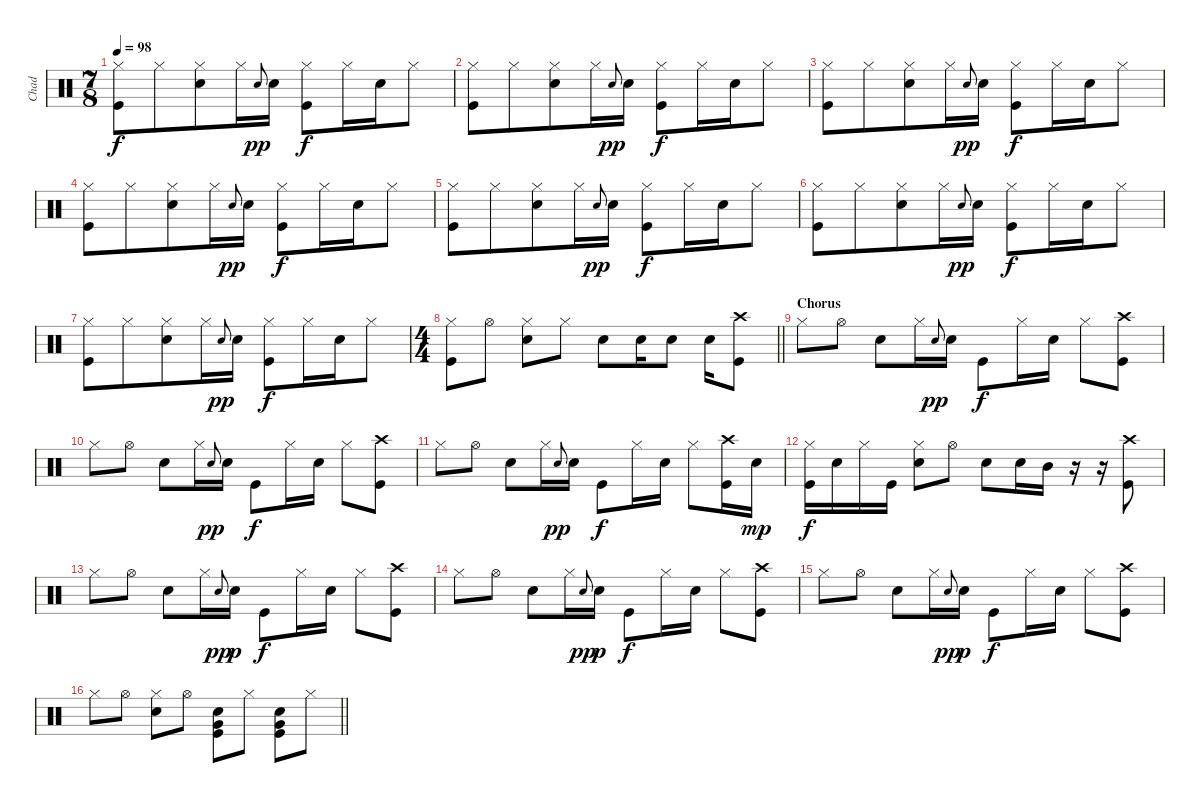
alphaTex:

\track ("Chad" "Chad") {instrument percussion}
\staff {score}
\articulation defaults
\ts (7 8)
\tempo 98
\clef neutral
\ks c
("Hi-Hat (closed)" "Kick (hit)").8{dy f} "Hi-Hat (closed)".8 ("Hi-Hat (closed)" "Snare (hit) 2").8 "Hi-Hat (closed)".16 "Snare (hit) 2".8{gr onbeat dy pp} "Snare (hit) 2".16 ("Hi-Hat (closed)" "Kick (hit)").8{dy f} "Hi-Hat (closed)".16 "Snare (hit) 2".16 "Hi-Hat (closed)".8 |
("Hi-Hat (closed)" "Kick (hit)").8 "Hi-Hat (closed)".8 ("Hi-Hat (closed)" "Snare (hit) 2").8 "Hi-Hat (closed)".16 "Snare (hit) 2".8{gr onbeat dy pp} "Snare (hit) 2".16 ("Hi-Hat (closed)" "Kick (hit)").8{dy f} "Hi-Hat (closed)".16 "Snare (hit) 2".16 "Hi-Hat (closed)".8 |
("Hi-Hat (closed)" "Kick (hit)").8 "Hi-Hat (closed)".8 ("Hi-Hat (closed)" "Snare (hit) 2").8 "Hi-Hat (closed)".16 "Snare (hit) 2".8{gr onbeat dy pp} "Snare (hit) 2".16 ("Hi-Hat (closed)" "Kick (hit)").8{dy f} "Hi-Hat (closed)".16 "Snare (hit) 2".16 "Hi-Hat (closed)".8 |
("Hi-Hat (closed)" "Kick (hit)").8 "Hi-Hat (closed)".8 ("Hi-Hat (closed)" "Snare (hit) 2").8 "Hi-Hat (closed)".16 "Snare (hit) 2".8{gr onbeat dy pp} "Snare (hit) 2".16 ("Hi-Hat (closed)" "Kick (hit)").8{dy f} "Hi-Hat (closed)".16 "Snare (hit) 2".16 "Hi-Hat (closed)".8 |
("Hi-Hat (closed)" "Kick (hit)").8 "Hi-Hat (closed)".8 ("Hi-Hat (closed)" "Snare (hit) 2").8 "Hi-Hat (closed)".16 "Snare (hit) 2".8{gr onbeat dy pp} "Snare (hit) 2".16 ("Hi-Hat (closed)" "Kick (hit)").8{dy f} "Hi-Hat (closed)".16 "Snare (hit) 2".16 "Hi-Hat (closed)".8 |
("Hi-Hat (closed)" "Kick (hit)").8 "Hi-Hat (closed)".8 ("Hi-Hat (closed)" "Snare (hit) 2").8 "Hi-Hat (closed)".16 "Snare (hit) 2".8{gr onbeat dy pp} "Snare (hit) 2".16 ("Hi-Hat (closed)" "Kick (hit)").8{dy f} "Hi-Hat (closed)".16 "Snare (hit) 2".16 "Hi-Hat (closed)".8 |
("Hi-Hat (closed)" "Kick (hit)").8 "Hi-Hat (closed)".8 ("Hi-Hat (closed)" "Snare (hit) 2").8 "Hi-Hat (closed)".16 "Snare (hit) 2".8{gr onbeat dy pp} "Snare (hit) 2".16 ("Hi-Hat (closed)" "Kick (hit)").8{dy f} "Hi-Hat (closed)".16 "Snare (hit) 2".16 "Hi-Hat (closed)".8 |
\ts (4 4)
\barLineRight lightlight
("Hi-Hat (closed)" "Kick (hit)").8 "Hi-Hat (open)".8 ("Hi-Hat (closed)" "Snare (hit) 2").8 "Hi-Hat (closed)".8 "Snare (hit) 2".8 "Snare (hit) 2".16 "Snare (hit) 2".8 "Snare (hit) 2".16 ("Crash high (hit)" "Kick (hit)").8 |
\section ("" "Chorus")
"Hi-Hat (closed)".8 "Hi-Hat (open)".8 "Snare (hit) 2".8 "Hi-Hat (closed)".16 "Snare (hit) 2".8{gr onbeat dy pp} "Snare (hit) 2".16 "Kick (hit)".8{dy f} "Hi-Hat (closed)".16 "Snare (hit) 2".16 "Hi-Hat (closed)".8 ("Crash high (hit)" "Kick (hit)").8 |
"Hi-Hat (closed)".8 "Hi-Hat (open)".8 "Snare (hit) 2".8 "Hi-Hat (closed)".16 "Snare (hit) 2".8{gr onbeat dy pp} "Snare (hit) 2".16 "Kick (hit)".8{dy f} "Hi-Hat (closed)".16 "Snare (hit) 2".16 "Hi-Hat (closed)".8 ("Crash high (hit)" "Kick (hit)").8 |
"Hi-Hat (closed)".8 "Hi-Hat (open)".8 "Snare (hit) 2".8 "Hi-Hat (closed)".16 "Snare (hit) 2".8{gr onbeat dy pp} "Snare (hit) 2".16 "Kick (hit)".8{dy f} "Hi-Hat (closed)".16 "Snare (hit) 2".16 "Hi-Hat (closed)".8 ("Crash high (hit)" "Kick (hit)").16 "Snare (hit) 2".16{dy mp} |
("Hi-Hat (closed)" "Kick (hit)").16{dy f} "Snare (hit) 2".16 "Hi-Hat (closed)".16 "Kick (hit)".16 ("Snare (hit) 2" "Hi-Hat (closed)").8 "Hi-Hat (open)".8 "Snare (hit) 2".8 "Snare (hit) 2".16 "Mid Tom (hit)".16 r.16 r.16 ("Crash high (hit)" "Kick (hit)").8 |
"Hi-Hat (closed)".8 "Hi-Hat (open)".8 "Snare (hit) 2".8 "Hi-Hat (closed)".16 "Snare (hit) 2".8{gr onbeat dy pp} "Snare (hit) 2".16{dy p} "Kick (hit)".8{dy f} "Hi-Hat (closed)".16 "Snare (hit) 2".16 "Hi-Hat (closed)".8 ("Crash high (hit)" "Kick (hit)").8 |
"Hi-Hat (closed)".8 "Hi-Hat (open)".8 "Snare (hit) 2".8 "Hi-Hat (closed)".16 "Snare (hit) 2".8{gr onbeat dy pp} "Snare (hit) 2".16{dy p} "Kick (hit)".8{dy f} "Hi-Hat (closed)".16 "Snare (hit) 2".16 "Hi-Hat (closed)".8 ("Crash high (hit)" "Kick (hit)").8 |
"Hi-Hat (closed)".8 "Hi-Hat (open)".8 "Snare (hit) 2".8 "Hi-Hat (closed)".16 "Snare (hit) 2".8{gr onbeat dy pp} "Snare (hit) 2".16{dy p} "Kick (hit)".8{dy f} "Hi-Hat (closed)".16 "Snare (hit) 2".16 "Hi-Hat (closed)".8 ("Crash high (hit)" "Kick (hit)").8 |
\barLineRight lightlight "Hi-Hat (closed)".8 "Hi-Hat (open)".8
("Hi-Hat (closed)" "Snare (hit) 2").8 "Hi-Hat (open)".8 ("Snare (hit) 2" "Kick (hit)" "Very Low Tom (hit)").8 "Hi-Hat (closed)".8 ("Kick (hit)" "Very Low Tom (hit)" "Snare (hit) 2").8 "Hi-Hat (closed)".8
